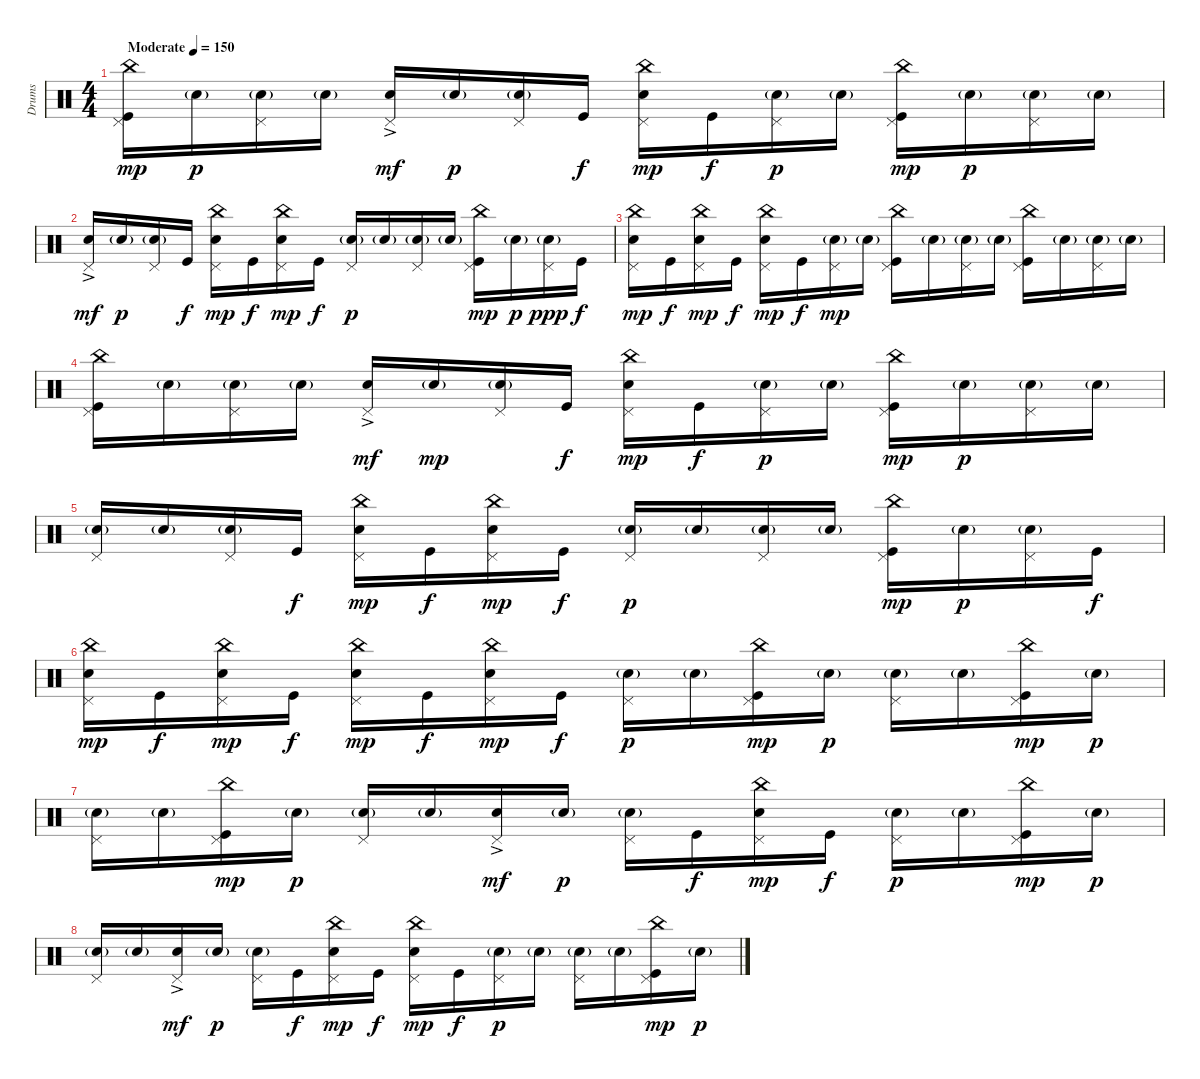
\track ("Drums" "Drums") {instrument percussion}
\staff {score}
\articulation defaults
\ts (4 4)
\tempo (150 "Moderate")
\clef neutral
\ks c
("China (hit)" "Pedal Hi-Hat (hit)" "Kick (hit)").16{dy mp} "Electric Snare (hit)"{g}.16{dy p} ("Pedal Hi-Hat (hit)" "Electric Snare (hit)"{g}).16 "Electric Snare (hit)"{g}.16 ("Pedal Hi-Hat (hit)" "Electric Snare (hit)"{ac}).16{dy mf} "Electric Snare (hit)"{g}.16{dy p} ("Pedal Hi-Hat (hit)" "Electric Snare (hit)"{g}).16 "Kick (hit)".16{dy f} ("China (hit)" "Pedal Hi-Hat (hit)" "Electric Snare (hit)").16{dy mp} "Kick (hit)".16{dy f} ("Pedal Hi-Hat (hit)" "Electric Snare (hit)"{g}).16{dy p} "Electric Snare (hit)"{g}.16 ("China (hit)" "Pedal Hi-Hat (hit)" "Kick (hit)").16{dy mp} "Electric Snare (hit)"{g}.16{dy p} ("Pedal Hi-Hat (hit)" "Electric Snare (hit)"{g}).16 "Electric Snare (hit)"{g}.16 |
("Pedal Hi-Hat (hit)" "Electric Snare (hit)"{ac}).16{dy mf} "Electric Snare (hit)"{g}.16{dy p} ("Pedal Hi-Hat (hit)" "Electric Snare (hit)"{g}).16 "Kick (hit)".16{dy f} ("China (hit)" "Pedal Hi-Hat (hit)" "Electric Snare (hit)").16{dy mp} "Kick (hit)".16{dy f} ("China (hit)" "Pedal Hi-Hat (hit)" "Electric Snare (hit)").16{dy mp} "Kick (hit)".16{dy f} ("Pedal Hi-Hat (hit)" "Electric Snare (hit)"{g}).16{dy p} "Electric Snare (hit)"{g}.16 ("Pedal Hi-Hat (hit)" "Electric Snare (hit)"{g}).16 "Electric Snare (hit)"{g}.16 ("China (hit)" "Pedal Hi-Hat (hit)" "Kick (hit)").16{dy mp} "Electric Snare (hit)"{g}.16{dy p} ("Pedal Hi-Hat (hit)" "Electric Snare (hit)"{g}).16{dy ppp} "Kick (hit)".16{dy f} |
("China (hit)" "Pedal Hi-Hat (hit)" "Electric Snare (hit)").16{dy mp} "Kick (hit)".16{dy f} ("China (hit)" "Pedal Hi-Hat (hit)" "Electric Snare (hit)").16{dy mp} "Kick (hit)".16{dy f} ("China (hit)" "Pedal Hi-Hat (hit)" "Electric Snare (hit)").16{dy mp} "Kick (hit)".16{dy f} ("Pedal Hi-Hat (hit)" "Electric Snare (hit)"{g}).16{dy mp} "Electric Snare (hit)"{g}.16 ("China (hit)" "Pedal Hi-Hat (hit)" "Kick (hit)").16 "Electric Snare (hit)"{g}.16 ("Pedal Hi-Hat (hit)" "Electric Snare (hit)"{g}).16 "Electric Snare (hit)"{g}.16 ("China (hit)" "Pedal Hi-Hat (hit)" "Kick (hit)").16 "Electric Snare (hit)"{g}.16 ("Pedal Hi-Hat (hit)" "Electric Snare (hit)"{g}).16 "Electric Snare (hit)"{g}.16 |
("China (hit)" "Pedal Hi-Hat (hit)" "Kick (hit)").16 "Electric Snare (hit)"{g}.16 ("Pedal Hi-Hat (hit)" "Electric Snare (hit)"{g}).16 "Electric Snare (hit)"{g}.16 ("Pedal Hi-Hat (hit)" "Electric Snare (hit)"{ac}).16{dy mf} "Electric Snare (hit)"{g}.16{dy mp} ("Pedal Hi-Hat (hit)" "Electric Snare (hit)"{g}).16 "Kick (hit)".16{dy f} ("China (hit)" "Pedal Hi-Hat (hit)" "Electric Snare (hit)").16{dy mp} "Kick (hit)".16{dy f} ("Pedal Hi-Hat (hit)" "Electric Snare (hit)"{g}).16{dy p} "Electric Snare (hit)"{g}.16 ("China (hit)" "Pedal Hi-Hat (hit)" "Kick (hit)").16{dy mp} "Electric Snare (hit)"{g}.16{dy p} ("Pedal Hi-Hat (hit)" "Electric Snare (hit)"{g}).16 "Electric Snare (hit)"{g}.16 |
("Pedal Hi-Hat (hit)" "Electric Snare (hit)"{g}).16 "Electric Snare (hit)"{g}.16 ("Pedal Hi-Hat (hit)" "Electric Snare (hit)"{g}).16 "Kick (hit)".16{dy f} ("China (hit)" "Pedal Hi-Hat (hit)" "Electric Snare (hit)").16{dy mp} "Kick (hit)".16{dy f} ("China (hit)" "Pedal Hi-Hat (hit)" "Electric Snare (hit)").16{dy mp} "Kick (hit)".16{dy f} ("Pedal Hi-Hat (hit)" "Electric Snare (hit)"{g}).16{dy p} "Electric Snare (hit)"{g}.16 ("Pedal Hi-Hat (hit)" "Electric Snare (hit)"{g}).16 "Electric Snare (hit)"{g}.16 ("China (hit)" "Pedal Hi-Hat (hit)" "Kick (hit)").16{dy mp} "Electric Snare (hit)"{g}.16{dy p} ("Pedal Hi-Hat (hit)" "Electric Snare (hit)"{g}).16 "Kick (hit)".16{dy f} |
("China (hit)" "Pedal Hi-Hat (hit)" "Electric Snare (hit)").16{dy mp} "Kick (hit)".16{dy f} ("China (hit)" "Pedal Hi-Hat (hit)" "Electric Snare (hit)").16{dy mp} "Kick (hit)".16{dy f} ("China (hit)" "Pedal Hi-Hat (hit)" "Electric Snare (hit)").16{dy mp} "Kick (hit)".16{dy f} ("China (hit)" "Pedal Hi-Hat (hit)" "Electric Snare (hit)").16{dy mp} "Kick (hit)".16{dy f} ("Pedal Hi-Hat (hit)" "Electric Snare (hit)"{g}).16{dy p} "Electric Snare (hit)"{g}.16 ("China (hit)" "Pedal Hi-Hat (hit)" "Kick (hit)").16{dy mp} "Electric Snare (hit)"{g}.16{dy p} ("Pedal Hi-Hat (hit)" "Electric Snare (hit)"{g}).16 "Electric Snare (hit)"{g}.16 ("China (hit)" "Pedal Hi-Hat (hit)" "Kick (hit)").16{dy mp} "Electric Snare (hit)"{g}.16{dy p} |
("Pedal Hi-Hat (hit)" "Electric Snare (hit)"{g}).16 "Electric Snare (hit)"{g}.16 ("China (hit)" "Pedal Hi-Hat (hit)" "Kick (hit)").16{dy mp} "Electric Snare (hit)"{g}.16{dy p} ("Pedal Hi-Hat (hit)" "Electric Snare (hit)"{g}).16 "Electric Snare (hit)"{g}.16 ("Pedal Hi-Hat (hit)" "Electric Snare (hit)"{ac}).16{dy mf} "Electric Snare (hit)"{g}.16{dy p} ("Pedal Hi-Hat (hit)" "Electric Snare (hit)"{g}).16 "Kick (hit)".16{dy f} ("China (hit)" "Pedal Hi-Hat (hit)" "Electric Snare (hit)").16{dy mp} "Kick (hit)".16{dy f} ("Pedal Hi-Hat (hit)" "Electric Snare (hit)"{g}).16{dy p} "Electric Snare (hit)"{g}.16 ("China (hit)" "Pedal Hi-Hat (hit)" "Kick (hit)").16{dy mp} "Electric Snare (hit)"{g}.16{dy p} |
("Pedal Hi-Hat (hit)" "Electric Snare (hit)"{g}).16 "Electric Snare (hit)"{g}.16 ("Pedal Hi-Hat (hit)" "Electric Snare (hit)"{ac}).16{dy mf} "Electric Snare (hit)"{g}.16{dy p} ("Pedal Hi-Hat (hit)" "Electric Snare (hit)"{g}).16 "Kick (hit)".16{dy f} ("China (hit)" "Pedal Hi-Hat (hit)" "Electric Snare (hit)").16{dy mp} "Kick (hit)".16{dy f} ("China (hit)" "Pedal Hi-Hat (hit)" "Electric Snare (hit)").16{dy mp} "Kick (hit)".16{dy f} ("Pedal Hi-Hat (hit)" "Electric Snare (hit)"{g}).16{dy p} "Electric Snare (hit)"{g}.16 ("Pedal Hi-Hat (hit)" "Electric Snare (hit)"{g}).16 "Electric Snare (hit)"{g}.16 ("China (hit)" "Pedal Hi-Hat (hit)" "Kick (hit)").16{dy mp} "Electric Snare (hit)"{g}.16{dy p}
